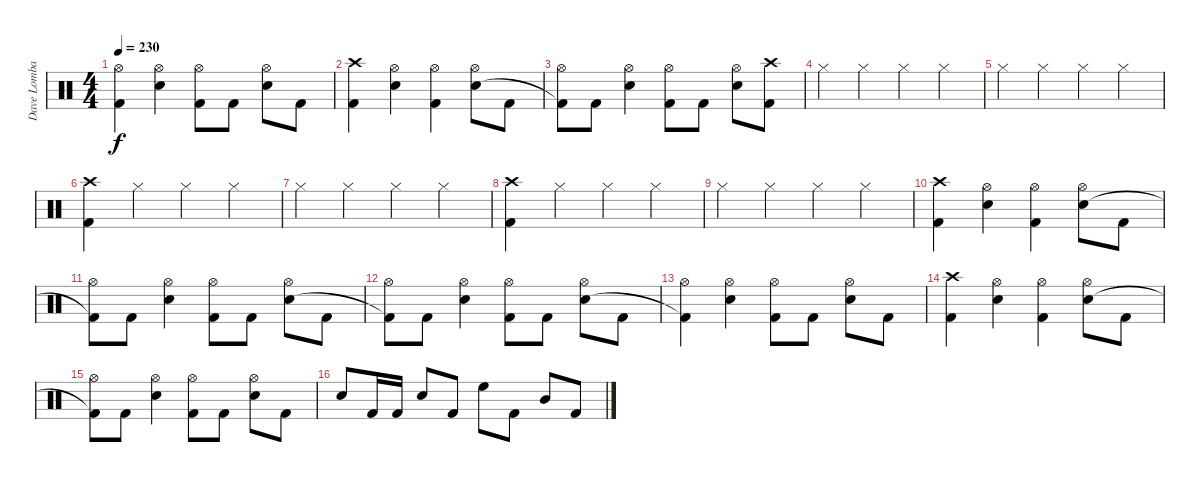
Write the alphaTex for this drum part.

\track ("Dave Lombardo" "Dave Lomba") {instrument percussion}
\staff {score}
\articulation defaults
\ts (4 4)
\tempo 230
\clef neutral
\ks c
("Hi-Hat (open)" "Kick (hit) 2"{t}).4{dy f} ("Hi-Hat (open)" "Snare (hit) 2").4 ("Hi-Hat (open)" "Kick (hit) 2").8 "Kick (hit) 2".8 ("Hi-Hat (open)" "Snare (hit) 2").8 "Kick (hit) 2".8 |
("Crash high (hit)" "Kick (hit) 2").4 ("Hi-Hat (open)" "Snare (hit) 2").4 ("Hi-Hat (open)" "Kick (hit) 2").4 ("Hi-Hat (open)" "Snare (hit) 2").8 "Kick (hit) 2".8 |
("Hi-Hat (open)" "Kick (hit) 2"{t}).8 "Kick (hit) 2".8 ("Hi-Hat (open)" "Snare (hit) 2").4 ("Hi-Hat (open)" "Kick (hit) 2").8 "Kick (hit) 2".8 ("Hi-Hat (open)" "Snare (hit) 2").8 ("Crash high (hit)" "Kick (hit) 2").8 |
"Hi-Hat (closed)".4 "Hi-Hat (closed)".4 "Hi-Hat (closed)".4 "Hi-Hat (closed)".4 |
"Hi-Hat (closed)".4 "Hi-Hat (closed)".4 "Hi-Hat (closed)".4 "Hi-Hat (closed)".4 |
("Crash high (hit)" "Kick (hit) 2").4 "Hi-Hat (closed)".4 "Hi-Hat (closed)".4 "Hi-Hat (closed)".4 |
"Hi-Hat (closed)".4 "Hi-Hat (closed)".4 "Hi-Hat (closed)".4 "Hi-Hat (closed)".4 |
("Crash high (hit)" "Kick (hit) 2").4 "Hi-Hat (closed)".4 "Hi-Hat (closed)".4 "Hi-Hat (closed)".4 |
"Hi-Hat (closed)".4 "Hi-Hat (closed)".4 "Hi-Hat (closed)".4 "Hi-Hat (closed)".4 |
("Crash high (hit)" "Kick (hit) 2").4 ("Hi-Hat (open)" "Snare (hit) 2").4 ("Hi-Hat (open)" "Kick (hit) 2").4 ("Hi-Hat (open)" "Snare (hit) 2").8 "Kick (hit) 2".8 |
("Hi-Hat (open)" "Kick (hit) 2"{t}).8 "Kick (hit) 2".8 ("Hi-Hat (open)" "Snare (hit) 2").4 ("Hi-Hat (open)" "Kick (hit) 2").8 "Kick (hit) 2".8 ("Hi-Hat (open)" "Snare (hit) 2").8 "Kick (hit) 2".8 |
("Hi-Hat (open)" "Kick (hit) 2"{t}).8 "Kick (hit) 2".8 ("Hi-Hat (open)" "Snare (hit) 2").4 ("Hi-Hat (open)" "Kick (hit) 2").8 "Kick (hit) 2".8 ("Hi-Hat (open)" "Snare (hit) 2").8 "Kick (hit) 2".8 |
("Hi-Hat (open)" "Kick (hit) 2"{t}).4 ("Hi-Hat (open)" "Snare (hit) 2").4 ("Hi-Hat (open)" "Kick (hit) 2").8 "Kick (hit) 2".8 ("Hi-Hat (open)" "Snare (hit) 2").8 "Kick (hit) 2".8 |
("Crash high (hit)" "Kick (hit) 2").4 ("Hi-Hat (open)" "Snare (hit) 2").4 ("Hi-Hat (open)" "Kick (hit) 2").4 ("Hi-Hat (open)" "Snare (hit) 2").8 "Kick (hit) 2".8 |
("Hi-Hat (open)" "Kick (hit) 2"{t}).8 "Kick (hit) 2".8 ("Hi-Hat (open)" "Snare (hit) 2").4 ("Hi-Hat (open)" "Kick (hit) 2").8 "Kick (hit) 2".8 ("Hi-Hat (open)" "Snare (hit) 2").8 "Kick (hit) 2".8 |
"Snare (hit) 2".8 "Kick (hit) 2".16 "Kick (hit) 2".16 "Snare (hit) 2".8 "Kick (hit) 2".8 "High Floor Tom (hit)".8 "Kick (hit) 2".8 "Mid Tom (hit)".8 "Kick (hit) 2".8
